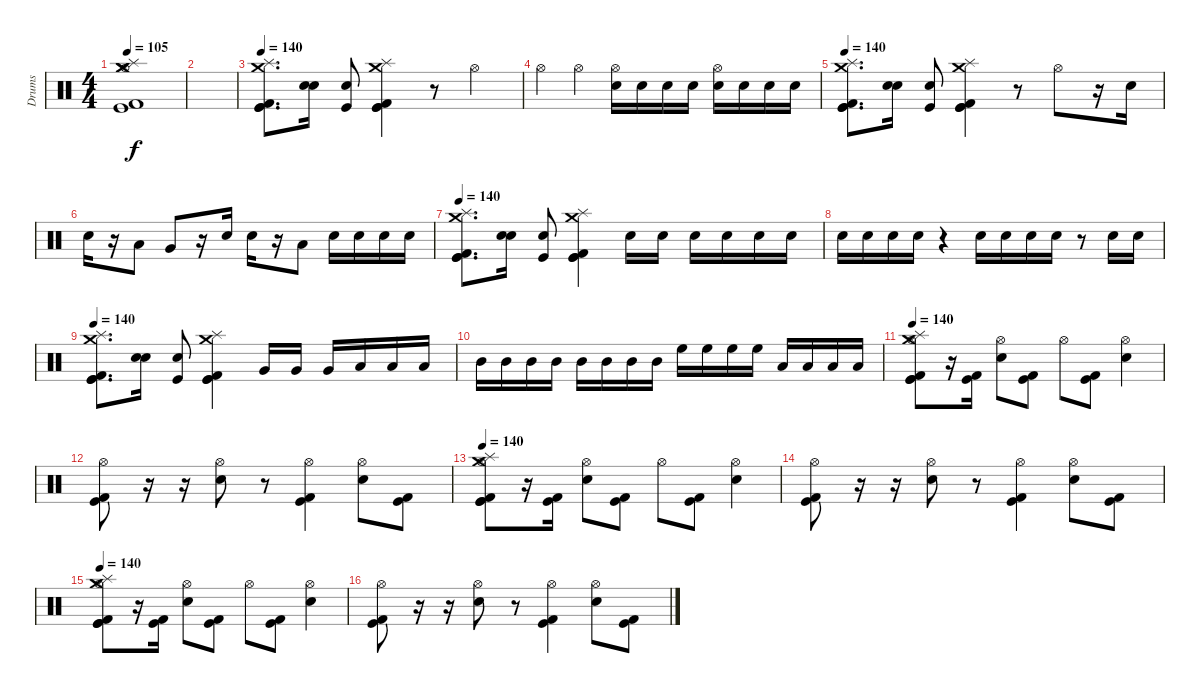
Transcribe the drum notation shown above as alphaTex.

\track ("Drums" "Drums") {instrument percussion}
\staff {score}
\articulation defaults
\ts (4 4)
\tempo 105
\clef neutral
\ks c
("Hi-Hat (open)" "Splash (hit)" "Kick (hit)" "Kick (hit) 2" "Crash medium (hit)" "Crash medium (hit)").1{dy f} |
|
\tempo 140
("Crash medium (hit)" "Splash (hit)" "Kick (hit)" "Kick (hit) 2" "Kick (hit)").8{d} ("Snare (hit) 2" "Electric Snare (hit)").16 ("Kick (hit)" "Electric Snare (hit)").8 ("Crash medium (hit)" "Splash (hit)" "Kick (hit)" "Kick (hit) 2" "Kick (hit)").4 r.8 "Hi-Hat (open)".4 |
"Hi-Hat (open)".4 "Hi-Hat (open)".4 ("Hi-Hat (open)" "Snare (hit) 2").16 "Snare (hit) 2".16 "Snare (hit) 2".16 "Snare (hit) 2".16 ("Hi-Hat (open)" "Snare (hit) 2").16 "Snare (hit) 2".16 "Snare (hit) 2".16 "Snare (hit) 2".16 |
\tempo 140
("Crash medium (hit)" "Splash (hit)" "Kick (hit)" "Kick (hit) 2" "Kick (hit)").8{d} ("Snare (hit) 2" "Electric Snare (hit)").16 ("Kick (hit)" "Electric Snare (hit)").8 ("Crash medium (hit)" "Splash (hit)" "Kick (hit)" "Kick (hit) 2" "Kick (hit)").4 r.8 "Hi-Hat (open)".8 r.16 "Snare (hit) 2".16 |
"Snare (hit) 2".16 r.16 "Low Tom (hit)".8 "Very Low Tom (hit)".8 r.16 "Snare (hit) 2".16 "Snare (hit) 2".16 r.16 "Low Tom (hit)".8 "Snare (hit) 2".16 "Snare (hit) 2".16 "Snare (hit) 2".16 "Snare (hit) 2".16 |
\tempo 140
("Crash medium (hit)" "Splash (hit)" "Kick (hit)" "Kick (hit) 2" "Kick (hit)").8{d} ("Snare (hit) 2" "Electric Snare (hit)").16 ("Kick (hit)" "Electric Snare (hit)").8 ("Crash medium (hit)" "Splash (hit)" "Kick (hit)" "Kick (hit) 2" "Kick (hit)").4 "Snare (hit) 2".16 "Snare (hit) 2".16 "Snare (hit) 2".16 "Snare (hit) 2".16 "Snare (hit) 2".16 "Snare (hit) 2".16 |
"Snare (hit) 2".16 "Snare (hit) 2".16 "Snare (hit) 2".16 "Snare (hit) 2".16 r.4 "Snare (hit) 2".16 "Snare (hit) 2".16 "Snare (hit) 2".16 "Snare (hit) 2".16 r.8 "Snare (hit) 2".16 "Snare (hit) 2".16 |
\tempo 140
("Crash medium (hit)" "Splash (hit)" "Kick (hit)" "Kick (hit) 2" "Kick (hit)").8{d} ("Snare (hit) 2" "Electric Snare (hit)").16 ("Kick (hit)" "Electric Snare (hit)").8 ("Crash medium (hit)" "Splash (hit)" "Kick (hit)" "Kick (hit) 2" "Kick (hit)").4 "Very Low Tom (hit)".16 "Very Low Tom (hit)".16 "Very Low Tom (hit)".16 "Low Tom (hit)".16 "Low Tom (hit)".16 "Low Tom (hit)".16 |
"Mid Tom (hit)".16 "Mid Tom (hit)".16 "Mid Tom (hit)".16 "Mid Tom (hit)".16 "Mid Tom (hit)".16 "Mid Tom (hit)".16 "Mid Tom (hit)".16 "Mid Tom (hit)".16 "High Floor Tom (hit)".16 "High Floor Tom (hit)".16 "High Floor Tom (hit)".16 "High Floor Tom (hit)".16 "Low Floor Tom (hit)".16 "Low Floor Tom (hit)".16 "Low Floor Tom (hit)".16 "Low Floor Tom (hit)".16 |
\tempo 140
("Hi-Hat (open)" "Kick (hit)" "Kick (hit) 2" "Splash (hit)" "Crash medium (hit)" "Kick (hit)").8 r.16 ("Kick (hit)" "Kick (hit) 2").16 ("Hi-Hat (open)" "Snare (hit) 2").8 ("Kick (hit)" "Kick (hit) 2").8 "Hi-Hat (open)".8 ("Kick (hit)" "Kick (hit) 2").8 ("Hi-Hat (open)" "Snare (hit) 2").4 |
("Hi-Hat (open)" "Kick (hit)" "Kick (hit) 2").8 r.16 r.16 ("Hi-Hat (open)" "Snare (hit) 2").8 r.8 ("Hi-Hat (open)" "Kick (hit)" "Kick (hit) 2").4 ("Hi-Hat (open)" "Snare (hit) 2").8 ("Kick (hit) 2" "Kick (hit)").8 |
\tempo 140
("Hi-Hat (open)" "Kick (hit)" "Kick (hit) 2" "Splash (hit)" "Crash medium (hit)" "Kick (hit)").8 r.16 ("Kick (hit)" "Kick (hit) 2").16 ("Hi-Hat (open)" "Snare (hit) 2").8 ("Kick (hit)" "Kick (hit) 2").8 "Hi-Hat (open)".8 ("Kick (hit)" "Kick (hit) 2").8 ("Hi-Hat (open)" "Snare (hit) 2").4 |
("Hi-Hat (open)" "Kick (hit)" "Kick (hit) 2").8 r.16 r.16 ("Hi-Hat (open)" "Snare (hit) 2").8 r.8 ("Hi-Hat (open)" "Kick (hit)" "Kick (hit) 2").4 ("Hi-Hat (open)" "Snare (hit) 2").8 ("Kick (hit) 2" "Kick (hit)").8 |
\tempo 140
("Hi-Hat (open)" "Kick (hit)" "Kick (hit) 2" "Splash (hit)" "Crash medium (hit)" "Kick (hit)").8 r.16 ("Kick (hit)" "Kick (hit) 2").16 ("Hi-Hat (open)" "Snare (hit) 2").8 ("Kick (hit)" "Kick (hit) 2").8 "Hi-Hat (open)".8 ("Kick (hit)" "Kick (hit) 2").8 ("Hi-Hat (open)" "Snare (hit) 2").4 |
("Hi-Hat (open)" "Kick (hit)" "Kick (hit) 2").8 r.16 r.16 ("Hi-Hat (open)" "Snare (hit) 2").8 r.8 ("Hi-Hat (open)" "Kick (hit)" "Kick (hit) 2").4 ("Hi-Hat (open)" "Snare (hit) 2").8 ("Kick (hit) 2" "Kick (hit)").8
